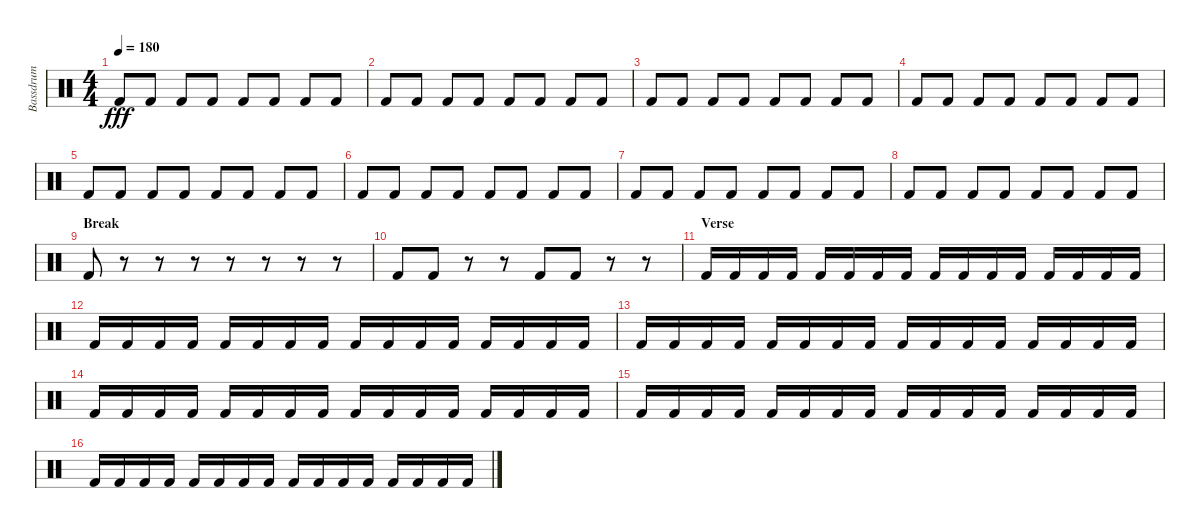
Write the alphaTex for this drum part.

\track ("Bassdrum" "Bassdrum") {instrument percussion}
\staff {score}
\articulation defaults
\ts (4 4)
\tempo 180
\clef neutral
\ks c "Kick (hit) 2".8{dy fff} "Kick (hit) 2".8 "Kick (hit) 2".8 "Kick (hit) 2".8 "Kick (hit) 2".8 "Kick (hit) 2".8 "Kick (hit) 2".8 "Kick (hit) 2".8
|
"Kick (hit) 2".8 "Kick (hit) 2".8 "Kick (hit) 2".8 "Kick (hit) 2".8 "Kick (hit) 2".8 "Kick (hit) 2".8 "Kick (hit) 2".8 "Kick (hit) 2".8 |
"Kick (hit) 2".8 "Kick (hit) 2".8 "Kick (hit) 2".8 "Kick (hit) 2".8 "Kick (hit) 2".8 "Kick (hit) 2".8 "Kick (hit) 2".8 "Kick (hit) 2".8 |
"Kick (hit) 2".8 "Kick (hit) 2".8 "Kick (hit) 2".8 "Kick (hit) 2".8 "Kick (hit) 2".8 "Kick (hit) 2".8 "Kick (hit) 2".8 "Kick (hit) 2".8 |
"Kick (hit) 2".8 "Kick (hit) 2".8 "Kick (hit) 2".8 "Kick (hit) 2".8 "Kick (hit) 2".8 "Kick (hit) 2".8 "Kick (hit) 2".8 "Kick (hit) 2".8 |
"Kick (hit) 2".8 "Kick (hit) 2".8 "Kick (hit) 2".8 "Kick (hit) 2".8 "Kick (hit) 2".8 "Kick (hit) 2".8 "Kick (hit) 2".8 "Kick (hit) 2".8 |
"Kick (hit) 2".8 "Kick (hit) 2".8 "Kick (hit) 2".8 "Kick (hit) 2".8 "Kick (hit) 2".8 "Kick (hit) 2".8 "Kick (hit) 2".8 "Kick (hit) 2".8 |
"Kick (hit) 2".8 "Kick (hit) 2".8 "Kick (hit) 2".8 "Kick (hit) 2".8 "Kick (hit) 2".8 "Kick (hit) 2".8 "Kick (hit) 2".8 "Kick (hit) 2".8 |
\section ("" "Break")
"Kick (hit) 2".8 r.8 r.8 r.8 r.8 r.8 r.8 r.8 |
"Kick (hit) 2".8 "Kick (hit) 2".8 r.8 r.8 "Kick (hit) 2".8 "Kick (hit) 2".8 r.8 r.8 |
\section ("" "Verse")
"Kick (hit) 2".16 "Kick (hit) 2".16 "Kick (hit) 2".16 "Kick (hit) 2".16 "Kick (hit) 2".16 "Kick (hit) 2".16 "Kick (hit) 2".16 "Kick (hit) 2".16 "Kick (hit) 2".16 "Kick (hit) 2".16 "Kick (hit) 2".16 "Kick (hit) 2".16 "Kick (hit) 2".16 "Kick (hit) 2".16 "Kick (hit) 2".16 "Kick (hit) 2".16 |
"Kick (hit) 2".16 "Kick (hit) 2".16 "Kick (hit) 2".16 "Kick (hit) 2".16 "Kick (hit) 2".16 "Kick (hit) 2".16 "Kick (hit) 2".16 "Kick (hit) 2".16 "Kick (hit) 2".16 "Kick (hit) 2".16 "Kick (hit) 2".16 "Kick (hit) 2".16 "Kick (hit) 2".16 "Kick (hit) 2".16 "Kick (hit) 2".16 "Kick (hit) 2".16 |
"Kick (hit) 2".16 "Kick (hit) 2".16 "Kick (hit) 2".16 "Kick (hit) 2".16 "Kick (hit) 2".16 "Kick (hit) 2".16 "Kick (hit) 2".16 "Kick (hit) 2".16 "Kick (hit) 2".16 "Kick (hit) 2".16 "Kick (hit) 2".16 "Kick (hit) 2".16 "Kick (hit) 2".16 "Kick (hit) 2".16 "Kick (hit) 2".16 "Kick (hit) 2".16 |
"Kick (hit) 2".16 "Kick (hit) 2".16 "Kick (hit) 2".16 "Kick (hit) 2".16 "Kick (hit) 2".16 "Kick (hit) 2".16 "Kick (hit) 2".16 "Kick (hit) 2".16 "Kick (hit) 2".16 "Kick (hit) 2".16 "Kick (hit) 2".16 "Kick (hit) 2".16 "Kick (hit) 2".16 "Kick (hit) 2".16 "Kick (hit) 2".16 "Kick (hit) 2".16 |
"Kick (hit) 2".16 "Kick (hit) 2".16 "Kick (hit) 2".16 "Kick (hit) 2".16 "Kick (hit) 2".16 "Kick (hit) 2".16 "Kick (hit) 2".16 "Kick (hit) 2".16 "Kick (hit) 2".16 "Kick (hit) 2".16 "Kick (hit) 2".16 "Kick (hit) 2".16 "Kick (hit) 2".16 "Kick (hit) 2".16 "Kick (hit) 2".16 "Kick (hit) 2".16 |
"Kick (hit) 2".16 "Kick (hit) 2".16 "Kick (hit) 2".16 "Kick (hit) 2".16 "Kick (hit) 2".16 "Kick (hit) 2".16 "Kick (hit) 2".16 "Kick (hit) 2".16 "Kick (hit) 2".16 "Kick (hit) 2".16 "Kick (hit) 2".16 "Kick (hit) 2".16 "Kick (hit) 2".16 "Kick (hit) 2".16 "Kick (hit) 2".16 "Kick (hit) 2".16
